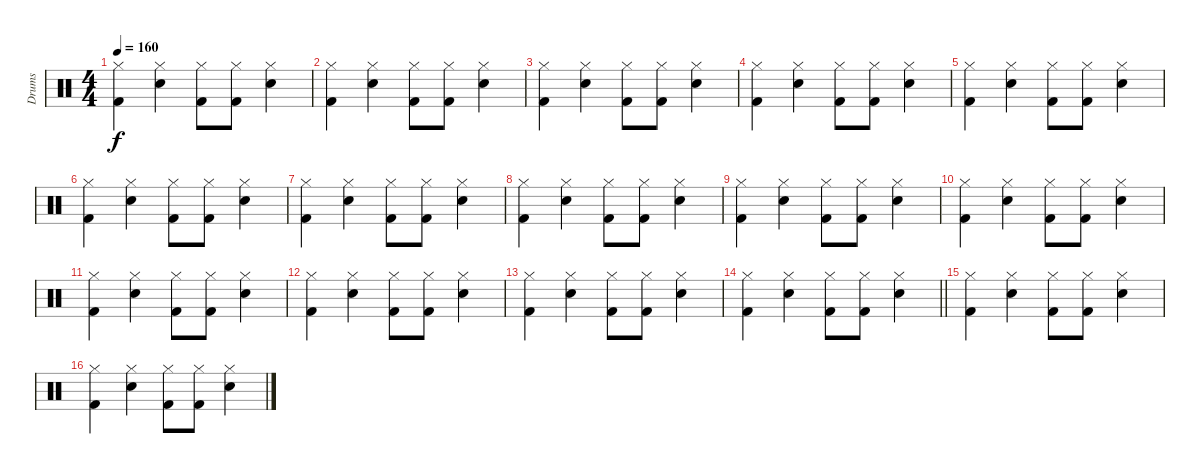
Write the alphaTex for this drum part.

\track ("Drums" "Drums") {instrument percussion}
\staff {score}
\articulation defaults
\ts (4 4)
\tempo 160
\clef neutral
\ks c
("Hi-Hat (closed)" "Kick (hit) 2").4{dy f} ("Hi-Hat (closed)" "Snare (hit) 2").4 ("Hi-Hat (closed)" "Kick (hit) 2").8 ("Hi-Hat (closed)" "Kick (hit) 2").8 ("Hi-Hat (closed)" "Snare (hit) 2").4 |
("Hi-Hat (closed)" "Kick (hit) 2").4 ("Hi-Hat (closed)" "Snare (hit) 2").4 ("Hi-Hat (closed)" "Kick (hit) 2").8 ("Hi-Hat (closed)" "Kick (hit) 2").8 ("Hi-Hat (closed)" "Snare (hit) 2").4 |
("Hi-Hat (closed)" "Kick (hit) 2").4 ("Hi-Hat (closed)" "Snare (hit) 2").4 ("Hi-Hat (closed)" "Kick (hit) 2").8 ("Hi-Hat (closed)" "Kick (hit) 2").8 ("Hi-Hat (closed)" "Snare (hit) 2").4 |
("Hi-Hat (closed)" "Kick (hit) 2").4 ("Hi-Hat (closed)" "Snare (hit) 2").4 ("Hi-Hat (closed)" "Kick (hit) 2").8 ("Hi-Hat (closed)" "Kick (hit) 2").8 ("Hi-Hat (closed)" "Snare (hit) 2").4 |
("Hi-Hat (closed)" "Kick (hit) 2").4 ("Hi-Hat (closed)" "Snare (hit) 2").4 ("Hi-Hat (closed)" "Kick (hit) 2").8 ("Hi-Hat (closed)" "Kick (hit) 2").8 ("Hi-Hat (closed)" "Snare (hit) 2").4 |
("Hi-Hat (closed)" "Kick (hit) 2").4 ("Hi-Hat (closed)" "Snare (hit) 2").4 ("Hi-Hat (closed)" "Kick (hit) 2").8 ("Hi-Hat (closed)" "Kick (hit) 2").8 ("Hi-Hat (closed)" "Snare (hit) 2").4 |
("Hi-Hat (closed)" "Kick (hit) 2").4 ("Hi-Hat (closed)" "Snare (hit) 2").4 ("Hi-Hat (closed)" "Kick (hit) 2").8 ("Hi-Hat (closed)" "Kick (hit) 2").8 ("Hi-Hat (closed)" "Snare (hit) 2").4 |
("Hi-Hat (closed)" "Kick (hit) 2").4 ("Hi-Hat (closed)" "Snare (hit) 2").4 ("Hi-Hat (closed)" "Kick (hit) 2").8 ("Hi-Hat (closed)" "Kick (hit) 2").8 ("Hi-Hat (closed)" "Snare (hit) 2").4 |
("Hi-Hat (closed)" "Kick (hit) 2").4 ("Hi-Hat (closed)" "Snare (hit) 2").4 ("Hi-Hat (closed)" "Kick (hit) 2").8 ("Hi-Hat (closed)" "Kick (hit) 2").8 ("Hi-Hat (closed)" "Snare (hit) 2").4 |
("Hi-Hat (closed)" "Kick (hit) 2").4 ("Hi-Hat (closed)" "Snare (hit) 2").4 ("Hi-Hat (closed)" "Kick (hit) 2").8 ("Hi-Hat (closed)" "Kick (hit) 2").8 ("Hi-Hat (closed)" "Snare (hit) 2").4 |
("Hi-Hat (closed)" "Kick (hit) 2").4 ("Hi-Hat (closed)" "Snare (hit) 2").4 ("Hi-Hat (closed)" "Kick (hit) 2").8 ("Hi-Hat (closed)" "Kick (hit) 2").8 ("Hi-Hat (closed)" "Snare (hit) 2").4 |
("Hi-Hat (closed)" "Kick (hit) 2").4 ("Hi-Hat (closed)" "Snare (hit) 2").4 ("Hi-Hat (closed)" "Kick (hit) 2").8 ("Hi-Hat (closed)" "Kick (hit) 2").8 ("Hi-Hat (closed)" "Snare (hit) 2").4 |
("Hi-Hat (closed)" "Kick (hit) 2").4 ("Hi-Hat (closed)" "Snare (hit) 2").4 ("Hi-Hat (closed)" "Kick (hit) 2").8 ("Hi-Hat (closed)" "Kick (hit) 2").8 ("Hi-Hat (closed)" "Snare (hit) 2").4 |
\barLineRight lightlight
("Hi-Hat (closed)" "Kick (hit) 2").4 ("Hi-Hat (closed)" "Snare (hit) 2").4 ("Hi-Hat (closed)" "Kick (hit) 2").8 ("Hi-Hat (closed)" "Kick (hit) 2").8 ("Hi-Hat (closed)" "Snare (hit) 2").4 |
("Hi-Hat (closed)" "Kick (hit) 2").4 ("Hi-Hat (closed)" "Snare (hit) 2").4 ("Hi-Hat (closed)" "Kick (hit) 2").8 ("Hi-Hat (closed)" "Kick (hit) 2").8 ("Hi-Hat (closed)" "Snare (hit) 2").4 |
("Hi-Hat (closed)" "Kick (hit) 2").4 ("Hi-Hat (closed)" "Snare (hit) 2").4 ("Hi-Hat (closed)" "Kick (hit) 2").8 ("Hi-Hat (closed)" "Kick (hit) 2").8 ("Hi-Hat (closed)" "Snare (hit) 2").4
